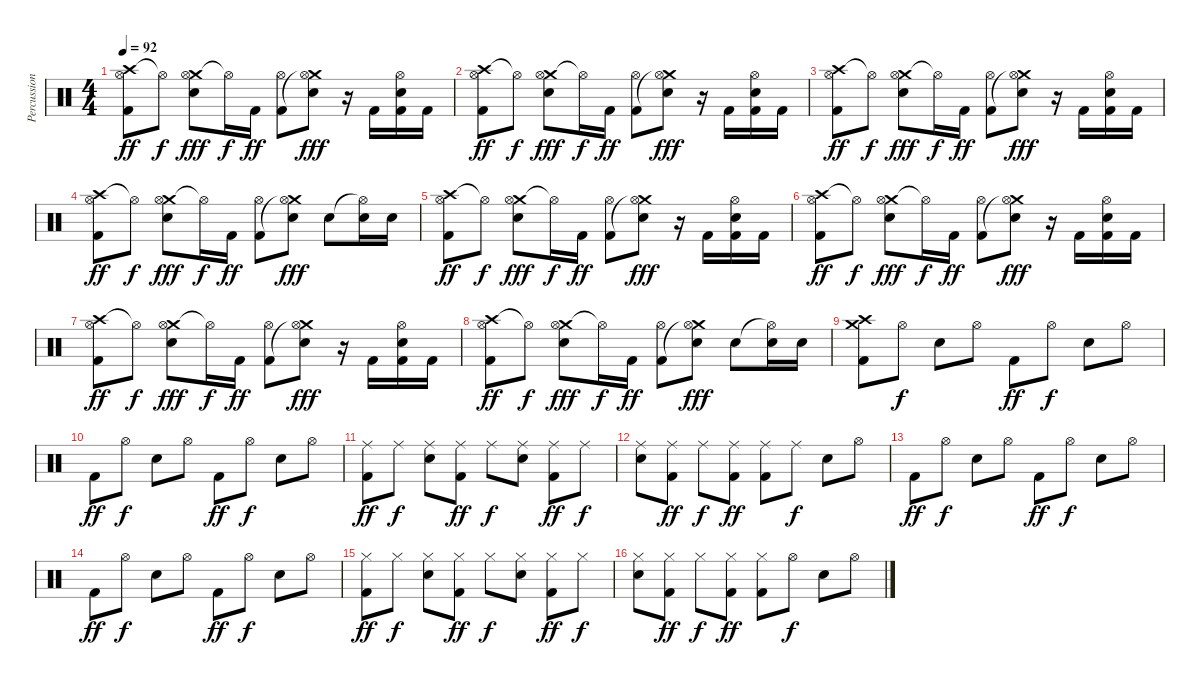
\track ("Percussion" "Percussion") {instrument percussion}
\staff {score}
\articulation defaults
\ts (4 4)
\tempo 92
\clef neutral
\ks c
("Crash high (hit)" "Hi-Hat (open)" "Kick (hit) 2").8{dy ff} "Hi-Hat (open)"{t}.8{dy f} ("Crash medium (hit)" "Hi-Hat (open)" "Snare (hit) 2").8{dy fff} "Hi-Hat (open)"{t}.16{dy f} "Kick (hit) 2".16{dy ff} ("Hi-Hat (open)" "Kick (hit) 2").8 ("Crash medium (hit)" "Hi-Hat (open)"{t} "Snare (hit) 2").8{dy fff} r.16 "Kick (hit) 2".16 ("Hi-Hat (open)" "Snare (hit) 2" "Kick (hit) 2").16 "Kick (hit) 2".16 |
("Crash high (hit)" "Hi-Hat (open)" "Kick (hit) 2").8{dy ff} "Hi-Hat (open)"{t}.8{dy f} ("Crash medium (hit)" "Hi-Hat (open)" "Snare (hit) 2").8{dy fff} "Hi-Hat (open)"{t}.16{dy f} "Kick (hit) 2".16{dy ff} ("Hi-Hat (open)" "Kick (hit) 2").8 ("Crash medium (hit)" "Hi-Hat (open)"{t} "Snare (hit) 2").8{dy fff} r.16 "Kick (hit) 2".16 ("Hi-Hat (open)" "Snare (hit) 2" "Kick (hit) 2").16 "Kick (hit) 2".16 |
("Crash high (hit)" "Hi-Hat (open)" "Kick (hit) 2").8{dy ff} "Hi-Hat (open)"{t}.8{dy f} ("Crash medium (hit)" "Hi-Hat (open)" "Snare (hit) 2").8{dy fff} "Hi-Hat (open)"{t}.16{dy f} "Kick (hit) 2".16{dy ff} ("Hi-Hat (open)" "Kick (hit) 2").8 ("Crash medium (hit)" "Hi-Hat (open)"{t} "Snare (hit) 2").8{dy fff} r.16 "Kick (hit) 2".16 ("Hi-Hat (open)" "Snare (hit) 2" "Kick (hit) 2").16 "Kick (hit) 2".16 |
("Crash high (hit)" "Hi-Hat (open)" "Kick (hit) 2").8{dy ff} "Hi-Hat (open)"{t}.8{dy f} ("Crash medium (hit)" "Hi-Hat (open)" "Snare (hit) 2").8{dy fff} "Hi-Hat (open)"{t}.16{dy f} "Kick (hit) 2".16{dy ff} ("Hi-Hat (open)" "Kick (hit) 2").8 ("Crash medium (hit)" "Hi-Hat (open)"{t} "Snare (hit) 2").8{dy fff} "Snare (hit) 2".8 ("Hi-Hat (open)"{t} "Snare (hit) 2").16 "Snare (hit) 2".16 |
("Crash high (hit)" "Hi-Hat (open)" "Kick (hit) 2").8{dy ff} "Hi-Hat (open)"{t}.8{dy f} ("Crash medium (hit)" "Hi-Hat (open)" "Snare (hit) 2").8{dy fff} "Hi-Hat (open)"{t}.16{dy f} "Kick (hit) 2".16{dy ff} ("Hi-Hat (open)" "Kick (hit) 2").8 ("Crash medium (hit)" "Hi-Hat (open)"{t} "Snare (hit) 2").8{dy fff} r.16 "Kick (hit) 2".16 ("Hi-Hat (open)" "Snare (hit) 2" "Kick (hit) 2").16 "Kick (hit) 2".16 |
("Crash high (hit)" "Hi-Hat (open)" "Kick (hit) 2").8{dy ff} "Hi-Hat (open)"{t}.8{dy f} ("Crash medium (hit)" "Hi-Hat (open)" "Snare (hit) 2").8{dy fff} "Hi-Hat (open)"{t}.16{dy f} "Kick (hit) 2".16{dy ff} ("Hi-Hat (open)" "Kick (hit) 2").8 ("Crash medium (hit)" "Hi-Hat (open)"{t} "Snare (hit) 2").8{dy fff} r.16 "Kick (hit) 2".16 ("Hi-Hat (open)" "Snare (hit) 2" "Kick (hit) 2").16 "Kick (hit) 2".16 |
("Crash high (hit)" "Hi-Hat (open)" "Kick (hit) 2").8{dy ff} "Hi-Hat (open)"{t}.8{dy f} ("Crash medium (hit)" "Hi-Hat (open)" "Snare (hit) 2").8{dy fff} "Hi-Hat (open)"{t}.16{dy f} "Kick (hit) 2".16{dy ff} ("Hi-Hat (open)" "Kick (hit) 2").8 ("Crash medium (hit)" "Hi-Hat (open)"{t} "Snare (hit) 2").8{dy fff} r.16 "Kick (hit) 2".16 ("Hi-Hat (open)" "Snare (hit) 2" "Kick (hit) 2").16 "Kick (hit) 2".16 |
("Crash high (hit)" "Hi-Hat (open)" "Kick (hit) 2").8{dy ff} "Hi-Hat (open)"{t}.8{dy f} ("Crash medium (hit)" "Hi-Hat (open)" "Snare (hit) 2").8{dy fff} "Hi-Hat (open)"{t}.16{dy f} "Kick (hit) 2".16{dy ff} ("Hi-Hat (open)" "Kick (hit) 2").8 ("Crash medium (hit)" "Hi-Hat (open)"{t} "Snare (hit) 2").8{dy fff} "Snare (hit) 2".8 ("Hi-Hat (open)"{t} "Snare (hit) 2").16 "Snare (hit) 2".16 |
("Crash medium (hit)" "Crash high (hit)" "Kick (hit) 2").8 "Hi-Hat (open)".8{dy f} "Snare (hit) 2".8 "Hi-Hat (open)".8 "Kick (hit) 2".8{dy ff} "Hi-Hat (open)".8{dy f} "Snare (hit) 2".8 "Hi-Hat (open)".8 |
"Kick (hit) 2".8{dy ff} "Hi-Hat (open)".8{dy f} "Snare (hit) 2".8 "Hi-Hat (open)".8 "Kick (hit) 2".8{dy ff} "Hi-Hat (open)".8{dy f} "Snare (hit) 2".8 "Hi-Hat (open)".8 |
("Ride (middle)" "Kick (hit) 2").8{dy ff} "Ride (middle)".8{dy f} ("Ride (middle)" "Snare (hit) 2").8 ("Ride (middle)" "Kick (hit) 2").8{dy ff} "Ride (middle)".8{dy f} ("Ride (middle)" "Snare (hit) 2").8 ("Ride (middle)" "Kick (hit) 2").8{dy ff} "Ride (middle)".8{dy f} |
("Ride (middle)" "Snare (hit) 2").8 ("Ride (middle)" "Kick (hit) 2").8{dy ff} "Ride (middle)".8{dy f} ("Ride (middle)" "Kick (hit) 2").8{dy ff} ("Ride (middle)" "Kick (hit) 2").8 "Ride (middle)".8{dy f} "Snare (hit) 2".8 "Hi-Hat (open)".8 |
"Kick (hit) 2".8{dy ff} "Hi-Hat (open)".8{dy f} "Snare (hit) 2".8 "Hi-Hat (open)".8 "Kick (hit) 2".8{dy ff} "Hi-Hat (open)".8{dy f} "Snare (hit) 2".8 "Hi-Hat (open)".8 |
"Kick (hit) 2".8{dy ff} "Hi-Hat (open)".8{dy f} "Snare (hit) 2".8 "Hi-Hat (open)".8 "Kick (hit) 2".8{dy ff} "Hi-Hat (open)".8{dy f} "Snare (hit) 2".8 "Hi-Hat (open)".8 |
("Hi-Hat (closed)" "Kick (hit) 2").8{dy ff} "Hi-Hat (closed)".8{dy f} ("Hi-Hat (closed)" "Snare (hit) 2").8 ("Hi-Hat (closed)" "Kick (hit) 2").8{dy ff} "Hi-Hat (closed)".8{dy f} ("Hi-Hat (closed)" "Snare (hit) 2").8 ("Hi-Hat (closed)" "Kick (hit) 2").8{dy ff} "Hi-Hat (closed)".8{dy f} |
("Hi-Hat (closed)" "Snare (hit) 2").8 ("Hi-Hat (closed)" "Kick (hit) 2").8{dy ff} "Hi-Hat (closed)".8{dy f} ("Hi-Hat (closed)" "Kick (hit) 2").8{dy ff} ("Hi-Hat (closed)" "Kick (hit) 2").8 "Hi-Hat (open)".8{dy f} "Snare (hit) 2".8 "Hi-Hat (open)".8
